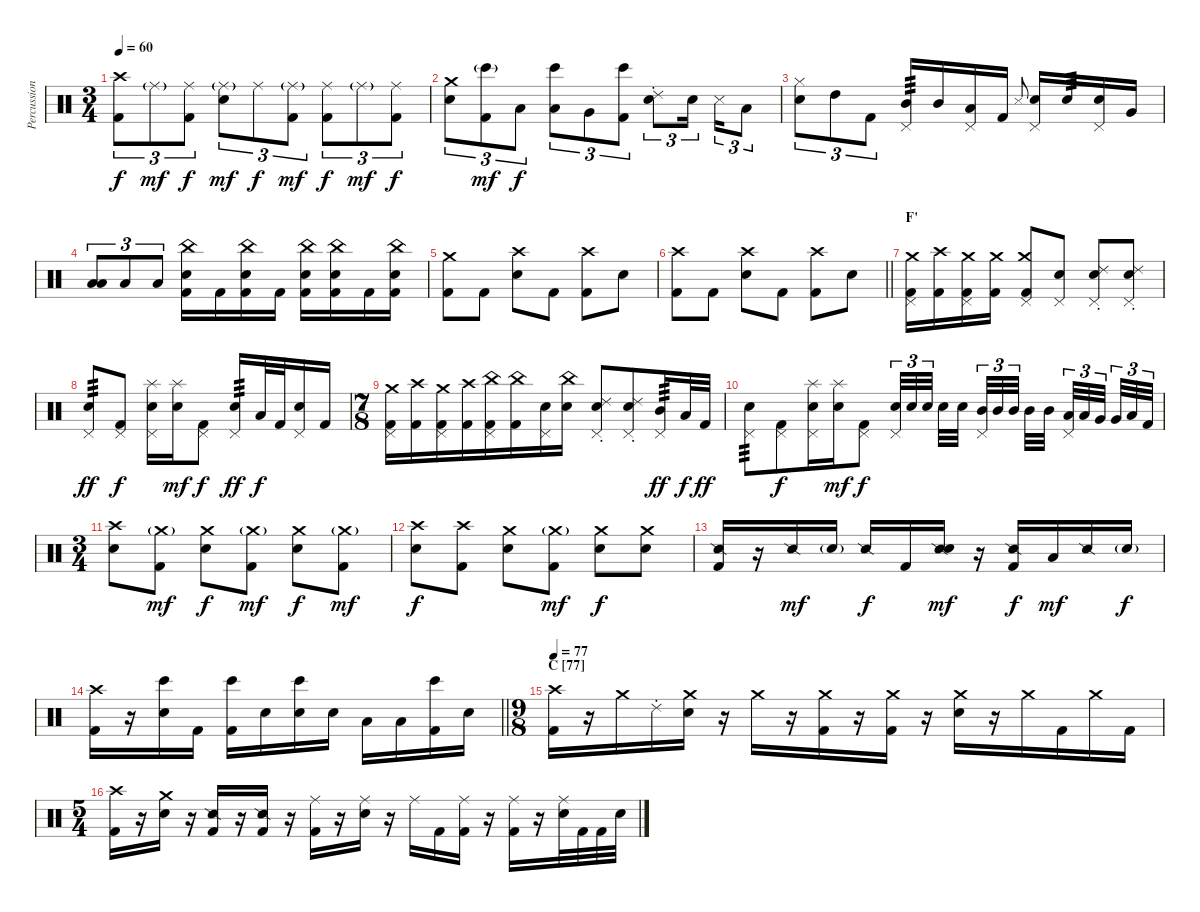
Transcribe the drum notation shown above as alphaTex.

\track ("Percussion" "Percussion") {solo instrument percussion}
\staff {score}
\articulation defaults
\ts (3 4)
\tempo 60
\clef neutral
\ks c
("Crash high (hit)" "Kick (hit) 2").8{tu (3 2) dy f} "Ride (middle)"{g}.8{tu (3 2) dy mf} ("Ride (middle)" "Kick (hit) 2").8{tu (3 2) dy f} ("Ride (middle)"{g} "Snare (hit) 2").8{tu (3 2) dy mf} "Ride (middle)".8{tu (3 2) dy f} ("Ride (middle)"{g} "Kick (hit) 2").8{tu (3 2) dy mf} ("Ride (middle)" "Kick (hit) 2").8{tu (3 2) dy f} "Ride (middle)"{g}.8{tu (3 2) dy mf} ("Ride (middle)" "Kick (hit) 2").8{tu (3 2) dy f} |
("Crash medium (hit)" "Snare (hit) 2").8{tu (3 2)} ("Bongo High (hit)"{g} "Kick (hit) 2").8{tu (3 2) dy mf} "Low Tom (hit)".8{tu (3 2) dy f} ("Bongo High (hit)" "Low Tom (hit)").8{tu (3 2)} "Very Low Tom (hit)".8{tu (3 2)} ("Bongo High (hit)" "Kick (hit) 2").8{tu (3 2)} ("Ride (choke) 2" "Snare (hit) 2").8{tu (3 2)} "Snare (hit) 2".16{tu (3 2) beam splitsecondary} "Metronome (hit)".16{tu (3 2)} "Low Tom (hit)".8{tu (3 2)} |
("Hi-Hat (closed)" "Snare (hit) 2").8{tu (3 2)} "High Tom (hit)".8{tu (3 2)} "Kick (hit) 2".8{tu (3 2)} ("Pedal Hi-Hat (hit)" "Mid Tom (hit)").16{tp 3} "Mid Tom (hit)".16 ("Pedal Hi-Hat (hit)" "Low Tom (hit)").16 "Kick (hit) 2".16 "Metronome (hit)".8{gr onbeat} ("Pedal Hi-Hat (hit)" "Snare (hit) 2").16 "Snare (hit) 2".16{tp 3} ("Pedal Hi-Hat (hit)" "Snare (hit) 2").16 "Very Low Tom (hit)".16 |
("Low Floor Tom (hit)" "Low Floor Tom (hit)").8{tu (3 2) bu 480} "Low Floor Tom (hit)".8{tu (3 2)} "Low Floor Tom (hit)".8{tu (3 2)} ("China (hit)" "Snare (hit) 2" "Kick (hit) 2").16 "Kick (hit) 2".16 ("China (hit)" "Snare (hit) 2" "Kick (hit) 2").16 "Kick (hit) 2".16 ("China (hit)" "Snare (hit) 2" "Kick (hit) 2").16 ("China (hit)" "Snare (hit) 2" "Kick (hit) 2").16 "Kick (hit) 2".16 ("China (hit)" "Snare (hit) 2" "Kick (hit) 2").16 |
("Crash medium (hit)" "Kick (hit) 2").8 "Kick (hit) 2".8 ("Crash high (hit)" "Snare (hit) 2").8 "Kick (hit) 2".8 ("Crash high (hit)" "Kick (hit) 2").8 "Snare (hit) 2".8 |
\barLineRight lightlight
("Crash high (hit)" "Kick (hit) 2").8 "Kick (hit) 2".8 ("Crash high (hit)" "Snare (hit) 2").8 "Kick (hit) 2".8 ("Crash high (hit)" "Kick (hit) 2").8 "Snare (hit) 2".8 |
\section ("" "F'")
("Crash medium (hit)" "Pedal Hi-Hat (hit)" "Kick (hit) 2").16 ("Crash high (hit)" "Kick (hit) 2").16 ("Crash medium (hit)" "Pedal Hi-Hat (hit)" "Kick (hit) 2").16 ("Crash medium (hit)" "Kick (hit) 2").16 ("Crash medium (hit)" "Pedal Hi-Hat (hit)" "Kick (hit) 2").8 ("Pedal Hi-Hat (hit)" "Snare (hit) 2").8 ("Ride (choke) 2" "Pedal Hi-Hat (hit)" "Snare (hit) 2").8 ("Ride (choke) 2" "Pedal Hi-Hat (hit)" "Snare (hit) 2").8 |
("Pedal Hi-Hat (hit)" "Snare (hit) 2").8{tp 3 dy ff} ("Pedal Hi-Hat (hit)" "Kick (hit) 2").8{dy f} ("Splash (hit)" "Pedal Hi-Hat (hit)" "Snare (hit) 2").16 ("Splash (hit)" "Snare (hit) 2").16{dy mf} ("Pedal Hi-Hat (hit)" "Kick (hit) 2").8{dy f} ("Pedal Hi-Hat (hit)" "Snare (hit) 2").16{tp 3 dy ff} "Low Tom (hit)".32{dy f} "Kick (hit) 2".32 ("Pedal Hi-Hat (hit)" "Snare (hit) 2").16 "Kick (hit) 2".16 |
\ts (7 8)
("Crash medium (hit)" "Pedal Hi-Hat (hit)" "Kick (hit) 2").16 ("Crash high (hit)" "Kick (hit) 2").16 ("Crash medium (hit)" "Pedal Hi-Hat (hit)" "Kick (hit) 2").16 ("Crash high (hit)" "Kick (hit) 2").16 ("China (hit)" "Pedal Hi-Hat (hit)" "Kick (hit) 2").16 ("China (hit)" "Kick (hit) 2").16 ("Pedal Hi-Hat (hit)" "Snare (hit) 2").16 ("China (hit)" "Snare (hit) 2").16 ("Ride (choke) 2" "Pedal Hi-Hat (hit)" "Snare (hit) 2").8 ("Ride (choke) 2" "Pedal Hi-Hat (hit)" "Snare (hit) 2").8 ("Pedal Hi-Hat (hit)" "Mid Tom (hit)").16{tp 3 dy ff} "Low Tom (hit)".32{dy f} "Kick (hit) 2".32{dy ff} |
("Pedal Hi-Hat (hit)" "Snare (hit) 2").8{tp 3} ("Pedal Hi-Hat (hit)" "Kick (hit) 2").8{dy f} ("Splash (hit)" "Pedal Hi-Hat (hit)" "Snare (hit) 2").16 ("Splash (hit)" "Snare (hit) 2").16{dy mf} ("Pedal Hi-Hat (hit)" "Kick (hit) 2").8{dy f} ("Pedal Hi-Hat (hit)" "Snare (hit) 2").32{tu (3 2)} "Snare (hit) 2".32{tu (3 2)} "Snare (hit) 2".32{tu (3 2) beam splitsecondary} "Snare (hit) 2".32 "Snare (hit) 2".32 ("Pedal Hi-Hat (hit)" "Mid Tom (hit)").32{tu (3 2)} "Mid Tom (hit)".32{tu (3 2)} "Mid Tom (hit)".32{tu (3 2) beam splitsecondary} "Mid Tom (hit)".32 "Mid Tom (hit)".32 ("Pedal Hi-Hat (hit)" "Low Tom (hit)").32{tu (3 2)} "Low Tom (hit)".32{tu (3 2)} "Very Low Tom (hit)".32{tu (3 2) beam splitsecondary} "Very Low Tom (hit)".32{tu (3 2)} "Low Floor Tom (hit)".32{tu (3 2)} "Kick (hit) 2".32{tu (3 2)} |
\ts (3 4)
("Crash high (hit)" "Snare (hit) 2").8 ("Crash medium (hit)"{g} "Kick (hit) 2").8{dy mf} ("Crash medium (hit)" "Snare (hit) 2").8{dy f} ("Crash medium (hit)"{g} "Kick (hit) 2").8{dy mf} ("Crash medium (hit)" "Snare (hit) 2").8{dy f} ("Crash medium (hit)"{g} "Kick (hit) 2").8{dy mf} |
("Crash high (hit)" "Snare (hit) 2").8{dy f} ("Crash high (hit)" "Kick (hit) 2").8 ("Crash medium (hit)" "Snare (hit) 2").8 ("Crash medium (hit)"{g} "Kick (hit) 2").8{dy mf} ("Crash medium (hit)" "Snare (hit) 2").8{dy f} ("Crash medium (hit)" "Snare (hit) 2").8 |
("Snare (side stick) 2" "Kick (hit) 2").16 r.16 "Snare (side stick) 2".16{dy mf} "Snare (hit) 2"{g}.16 "Snare (side stick) 2".16{dy f} "Kick (hit) 2".16 ("Snare (side stick) 2" "Snare (hit) 2").16{dy mf} r.16 ("Snare (side stick) 2" "Kick (hit) 2").16{dy f} "Low Tom (hit)".16{dy mf} "Snare (side stick) 2".16 "Snare (hit) 2"{g}.16{dy f} |
\barLineRight lightlight
("Crash high (hit)" "Kick (hit) 2").16 r.16 ("Bongo High (hit)" "Snare (hit) 2").16 "Kick (hit) 2".16 ("Bongo High (hit)" "Kick (hit) 2").16 "Snare (hit) 2".16 ("Bongo High (hit)" "Snare (hit) 2").16 "Snare (hit) 2".16 "Low Tom (hit)".16 "Low Tom (hit)".16 ("Bongo High (hit)" "Kick (hit) 2").16 "Snare (hit) 2".16 |
\ts (9 8)
\section ("" "C [77]")
\tempo 77
("Crash high (hit)" "Kick (hit) 2").16 r.16 "Crash medium (hit)".16 "Ride (choke) 2".16 ("Crash medium (hit)" "Snare (hit) 2").16 r.16 "Crash medium (hit)".16 r.16 ("Crash medium (hit)" "Kick (hit) 2").16 r.16 ("Crash medium (hit)" "Kick (hit) 2").16 r.16 ("Crash medium (hit)" "Snare (hit) 2").16 r.16 "Crash medium (hit)".16 "Kick (hit) 2".16 "Crash medium (hit)".16 "Kick (hit) 2".16 |
\ts (5 4)
("Crash high (hit)" "Kick (hit) 2").16 r.16 ("Crash medium (hit)" "Snare (hit) 2").16 r.16 ("Snare (side stick) 2" "Kick (hit) 2").16 r.16 ("Snare (side stick) 2" "Kick (hit) 2").16 r.16 ("Ride (middle)" "Kick (hit) 2").16 r.16 ("Ride (middle)" "Snare (hit) 2").16 r.16 "Ride (middle)".16 "Kick (hit) 2".16 ("Ride (middle)" "Kick (hit) 2").16 r.16 ("Ride (middle)" "Kick (hit) 2").16 r.16 ("Ride (middle)" "Snare (hit) 2").32 "Kick (hit) 2".32 "Kick (hit) 2".32 "Snare (hit) 2".32
